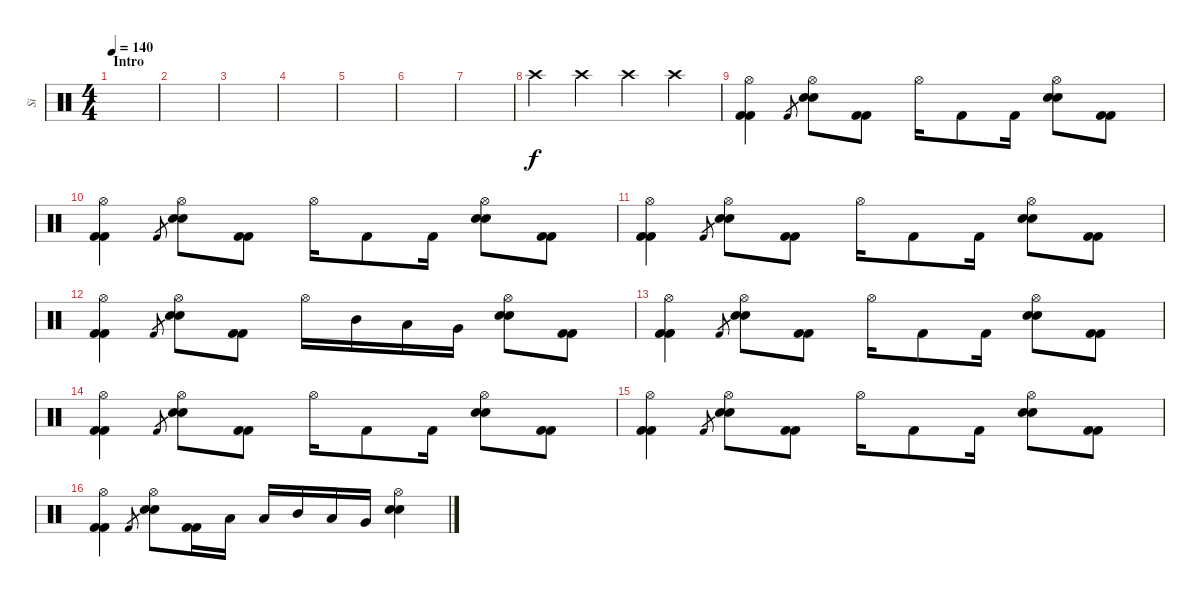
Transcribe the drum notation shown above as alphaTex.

\track ("Si" "Si") {instrument percussion}
\staff {score}
\articulation defaults
\ts (4 4)
\section ("" "Intro")
\tempo 140
\clef neutral
\ks c
|
|
|
|
|
|
|
"Crash high (hit)".4 "Crash high (hit)".4 "Crash high (hit)".4 "Crash high (hit)".4 |
("Hi-Hat (open)" "Kick (hit) 2" "Kick (hit) 2").4 "Kick (hit) 2".8{gr} ("Hi-Hat (open)" "Electric Snare (hit)" "Electric Snare (hit)").8 ("Kick (hit) 2" "Kick (hit) 2").8 "Hi-Hat (open)".16 "Kick (hit) 2".8 "Kick (hit) 2".16 ("Hi-Hat (open)" "Electric Snare (hit)" "Electric Snare (hit)").8 ("Kick (hit) 2" "Kick (hit) 2").8 |
("Hi-Hat (open)" "Kick (hit) 2" "Kick (hit) 2").4 "Kick (hit) 2".8{gr} ("Hi-Hat (open)" "Electric Snare (hit)" "Electric Snare (hit)").8 ("Kick (hit) 2" "Kick (hit) 2").8 "Hi-Hat (open)".16 "Kick (hit) 2".8 "Kick (hit) 2".16 ("Hi-Hat (open)" "Electric Snare (hit)" "Electric Snare (hit)").8 ("Kick (hit) 2" "Kick (hit) 2").8 |
("Hi-Hat (open)" "Kick (hit) 2" "Kick (hit) 2").4 "Kick (hit) 2".8{gr} ("Hi-Hat (open)" "Electric Snare (hit)" "Electric Snare (hit)").8 ("Kick (hit) 2" "Kick (hit) 2").8 "Hi-Hat (open)".16 "Kick (hit) 2".8 "Kick (hit) 2".16 ("Hi-Hat (open)" "Electric Snare (hit)" "Electric Snare (hit)").8 ("Kick (hit) 2" "Kick (hit) 2").8 |
("Hi-Hat (open)" "Kick (hit) 2" "Kick (hit) 2").4 "Kick (hit) 2".8{gr} ("Hi-Hat (open)" "Electric Snare (hit)" "Electric Snare (hit)").8 ("Kick (hit) 2" "Kick (hit) 2").8 "Hi-Hat (open)".16 "Mid Tom (hit)".16 "Low Tom (hit)".16 "Very Low Tom (hit)".16 ("Hi-Hat (open)" "Electric Snare (hit)" "Electric Snare (hit)").8 ("Kick (hit) 2" "Kick (hit) 2").8 |
("Hi-Hat (open)" "Kick (hit) 2" "Kick (hit) 2").4 "Kick (hit) 2".8{gr} ("Hi-Hat (open)" "Electric Snare (hit)" "Electric Snare (hit)").8 ("Kick (hit) 2" "Kick (hit) 2").8 "Hi-Hat (open)".16 "Kick (hit) 2".8 "Kick (hit) 2".16 ("Hi-Hat (open)" "Electric Snare (hit)" "Electric Snare (hit)").8 ("Kick (hit) 2" "Kick (hit) 2").8 |
("Hi-Hat (open)" "Kick (hit) 2" "Kick (hit) 2").4 "Kick (hit) 2".8{gr} ("Hi-Hat (open)" "Electric Snare (hit)" "Electric Snare (hit)").8 ("Kick (hit) 2" "Kick (hit) 2").8 "Hi-Hat (open)".16 "Kick (hit) 2".8 "Kick (hit) 2".16 ("Hi-Hat (open)" "Electric Snare (hit)" "Electric Snare (hit)").8 ("Kick (hit) 2" "Kick (hit) 2").8 |
("Hi-Hat (open)" "Kick (hit) 2" "Kick (hit) 2").4 "Kick (hit) 2".8{gr} ("Hi-Hat (open)" "Electric Snare (hit)" "Electric Snare (hit)").8 ("Kick (hit) 2" "Kick (hit) 2").8 "Hi-Hat (open)".16 "Kick (hit) 2".8 "Kick (hit) 2".16 ("Hi-Hat (open)" "Electric Snare (hit)" "Electric Snare (hit)").8 ("Kick (hit) 2" "Kick (hit) 2").8 |
("Hi-Hat (open)" "Kick (hit) 2" "Kick (hit) 2").4 "Kick (hit) 2".8{gr} ("Hi-Hat (open)" "Electric Snare (hit)" "Electric Snare (hit)").8 ("Kick (hit) 2" "Kick (hit) 2").16 "Low Tom (hit)".16 "Low Tom (hit)".16 "Mid Tom (hit)".16 "Low Tom (hit)".16 "Very Low Tom (hit)".16 ("Hi-Hat (open)" "Electric Snare (hit)" "Electric Snare (hit)").4
